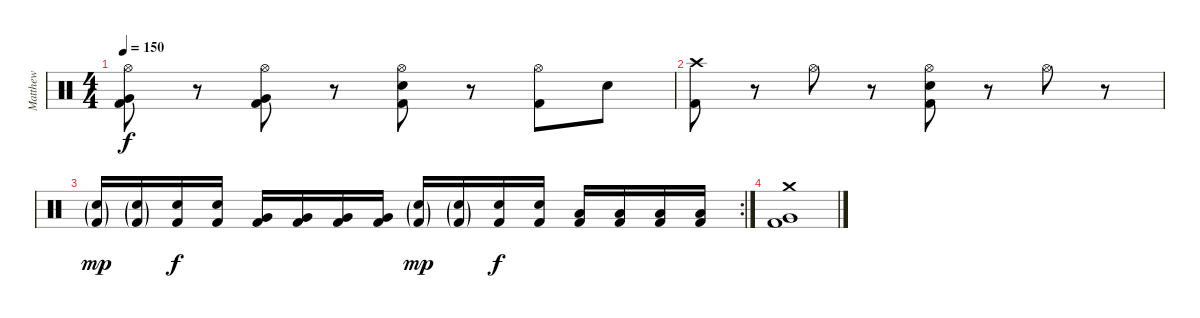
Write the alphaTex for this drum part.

\track ("Matthew" "Matthew") {instrument percussion}
\staff {score}
\articulation defaults
\ts (4 4)
\tempo 150
\clef neutral
\ks c
("Hi-Hat (open)" "Very Low Tom (hit)" "Kick (hit) 2").8{dy f} r.8 ("Hi-Hat (open)" "Very Low Tom (hit)" "Kick (hit) 2").8 r.8 ("Hi-Hat (open)" "Snare (hit) 2" "Kick (hit) 2").8 r.8 ("Hi-Hat (open)" "Kick (hit) 2").8 "Snare (hit) 2".8 |
("Crash high (hit)" "Kick (hit) 2").8 r.8 "Hi-Hat (open)".8 r.8 ("Hi-Hat (open)" "Snare (hit) 2" "Kick (hit) 2").8 r.8 "Hi-Hat (open)".8 r.8 |
\rc 2
("Electric Snare (hit)"{g} "Kick (hit) 2"{g}).16{dy mp} ("Electric Snare (hit)"{g} "Kick (hit) 2"{g}).16 ("Electric Snare (hit)" "Kick (hit) 2").16{dy f} ("Electric Snare (hit)" "Kick (hit) 2").16 ("Very Low Tom (hit)" "Kick (hit) 2").16 ("Very Low Tom (hit)" "Kick (hit) 2").16 ("Very Low Tom (hit)" "Kick (hit) 2").16 ("Very Low Tom (hit)" "Kick (hit) 2").16 ("Electric Snare (hit)"{g} "Kick (hit) 2"{g}).16{dy mp} ("Electric Snare (hit)"{g} "Kick (hit) 2"{g}).16 ("Electric Snare (hit)" "Kick (hit) 2").16{dy f} ("Electric Snare (hit)" "Kick (hit) 2").16 ("Low Floor Tom (hit)" "Kick (hit) 2").16 ("Low Floor Tom (hit)" "Kick (hit) 2").16 ("Low Floor Tom (hit)" "Kick (hit) 2").16 ("Low Floor Tom (hit)" "Kick (hit) 2").16 |
("Crash medium (hit)" "Very Low Tom (hit)" "Kick (hit) 2").1
